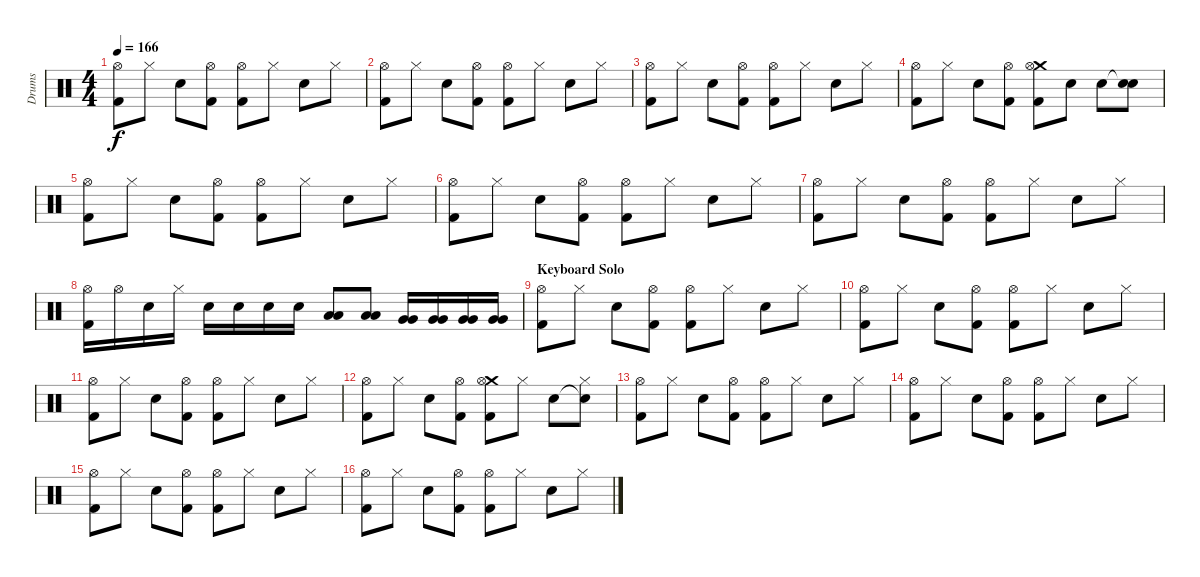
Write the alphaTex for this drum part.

\track ("Drums" "Drums") {instrument percussion}
\staff {score}
\articulation defaults
\ts (4 4)
\tempo 166
\clef neutral
\ks c
("Hi-Hat (open)" "Kick (hit) 2").8{dy f} "Hi-Hat (closed)".8 "Electric Snare (hit)".8 ("Hi-Hat (open)" "Kick (hit) 2").8 ("Hi-Hat (open)" "Kick (hit) 2").8 "Hi-Hat (closed)".8 "Electric Snare (hit)".8 "Hi-Hat (closed)".8 |
("Hi-Hat (open)" "Kick (hit) 2").8 "Hi-Hat (closed)".8 "Electric Snare (hit)".8 ("Hi-Hat (open)" "Kick (hit) 2").8 ("Hi-Hat (open)" "Kick (hit) 2").8 "Hi-Hat (closed)".8 "Electric Snare (hit)".8 "Hi-Hat (closed)".8 |
("Hi-Hat (open)" "Kick (hit) 2").8 "Hi-Hat (closed)".8 "Electric Snare (hit)".8 ("Hi-Hat (open)" "Kick (hit) 2").8 ("Hi-Hat (open)" "Kick (hit) 2").8 "Hi-Hat (closed)".8 "Electric Snare (hit)".8 "Hi-Hat (closed)".8 |
("Hi-Hat (open)" "Kick (hit) 2").8 "Hi-Hat (closed)".8 "Electric Snare (hit)".8 ("Hi-Hat (open)" "Kick (hit) 2").8 ("Crash medium (hit)" "Hi-Hat (open)" "Kick (hit) 2").8 "Electric Snare (hit)".8 "Snare (hit) 2".8 ("Snare (hit)"{t} "Electric Snare (hit)").8 |
("Hi-Hat (open)" "Kick (hit) 2").8 "Hi-Hat (closed)".8 "Electric Snare (hit)".8 ("Hi-Hat (open)" "Kick (hit) 2").8 ("Hi-Hat (open)" "Kick (hit) 2").8 "Hi-Hat (closed)".8 "Electric Snare (hit)".8 "Hi-Hat (closed)".8 |
("Hi-Hat (open)" "Kick (hit) 2").8 "Hi-Hat (closed)".8 "Electric Snare (hit)".8 ("Hi-Hat (open)" "Kick (hit) 2").8 ("Hi-Hat (open)" "Kick (hit) 2").8 "Hi-Hat (closed)".8 "Electric Snare (hit)".8 "Hi-Hat (closed)".8 |
("Hi-Hat (open)" "Kick (hit) 2").8 "Hi-Hat (closed)".8 "Electric Snare (hit)".8 ("Hi-Hat (open)" "Kick (hit) 2").8 ("Hi-Hat (open)" "Kick (hit) 2").8 "Hi-Hat (closed)".8 "Electric Snare (hit)".8 "Hi-Hat (closed)".8 |
("Hi-Hat (open)" "Kick (hit) 2").16 "Hi-Hat (open)".16 "Electric Snare (hit)".16 "Hi-Hat (closed)".16 "Electric Snare (hit)".16 "Electric Snare (hit)".16 "Snare (hit) 2".16 "Electric Snare (hit)".16 ("Low Floor Tom (hit)" "Low Floor Tom (hit)").8 ("Low Floor Tom (hit)" "Low Floor Tom (hit)").8 ("Very Low Tom (hit)" "Very Low Tom (hit)").16 ("Very Low Tom (hit)" "Very Low Tom (hit)").16 ("Very Low Tom (hit)" "Very Low Tom (hit)").16 ("Very Low Tom (hit)" "Very Low Tom (hit)").16 |
\section ("" "Keyboard Solo")
("Hi-Hat (open)" "Kick (hit) 2").8 "Hi-Hat (closed)".8 "Electric Snare (hit)".8 ("Hi-Hat (open)" "Kick (hit) 2").8 ("Hi-Hat (open)" "Kick (hit) 2").8 "Hi-Hat (closed)".8 "Electric Snare (hit)".8 "Hi-Hat (closed)".8 |
("Hi-Hat (open)" "Kick (hit) 2").8 "Hi-Hat (closed)".8 "Electric Snare (hit)".8 ("Hi-Hat (open)" "Kick (hit) 2").8 ("Hi-Hat (open)" "Kick (hit) 2").8 "Hi-Hat (closed)".8 "Electric Snare (hit)".8 "Hi-Hat (closed)".8 |
("Hi-Hat (open)" "Kick (hit) 2").8 "Hi-Hat (closed)".8 "Electric Snare (hit)".8 ("Hi-Hat (open)" "Kick (hit) 2").8 ("Hi-Hat (open)" "Kick (hit) 2").8 "Hi-Hat (closed)".8 "Electric Snare (hit)".8 "Hi-Hat (closed)".8 |
("Hi-Hat (open)" "Kick (hit) 2").8 "Hi-Hat (closed)".8 "Electric Snare (hit)".8 ("Hi-Hat (open)" "Kick (hit) 2").8 ("Crash medium (hit)" "Hi-Hat (open)" "Kick (hit) 2").8 "Hi-Hat (closed)".8 "Electric Snare (hit)".8 ("Snare (hit)"{t} "Hi-Hat (closed)").8 |
("Hi-Hat (open)" "Kick (hit) 2").8 "Hi-Hat (closed)".8 "Electric Snare (hit)".8 ("Hi-Hat (open)" "Kick (hit) 2").8 ("Hi-Hat (open)" "Kick (hit) 2").8 "Hi-Hat (closed)".8 "Electric Snare (hit)".8 "Hi-Hat (closed)".8 |
("Hi-Hat (open)" "Kick (hit) 2").8 "Hi-Hat (closed)".8 "Electric Snare (hit)".8 ("Hi-Hat (open)" "Kick (hit) 2").8 ("Hi-Hat (open)" "Kick (hit) 2").8 "Hi-Hat (closed)".8 "Electric Snare (hit)".8 "Hi-Hat (closed)".8 |
("Hi-Hat (open)" "Kick (hit) 2").8 "Hi-Hat (closed)".8 "Electric Snare (hit)".8 ("Hi-Hat (open)" "Kick (hit) 2").8 ("Hi-Hat (open)" "Kick (hit) 2").8 "Hi-Hat (closed)".8 "Electric Snare (hit)".8 "Hi-Hat (closed)".8 |
("Hi-Hat (open)" "Kick (hit) 2").8 "Hi-Hat (closed)".8 "Electric Snare (hit)".8 ("Hi-Hat (open)" "Kick (hit) 2").8 ("Hi-Hat (open)" "Kick (hit) 2").8 "Hi-Hat (closed)".8 "Electric Snare (hit)".8 "Hi-Hat (closed)".8
